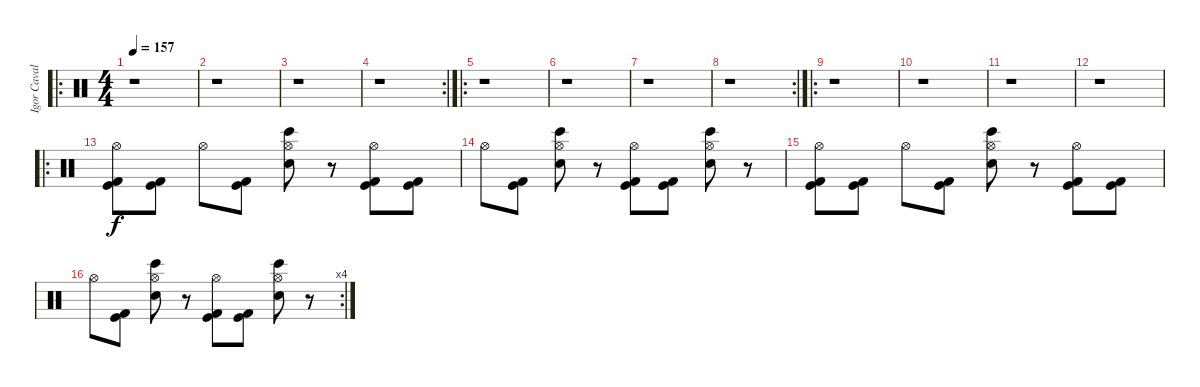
\track ("Igor Cavalera" "Igor Caval") {instrument percussion}
\staff {score}
\articulation defaults
\ro
\ts (4 4)
\tempo 157
\clef neutral
\ks c
r.1{dy f} |
r.1 |
r.1 |
\rc 2
r.1 |
\ro
r.1 |
r.1 |
r.1 |
\rc 2
r.1 |
\ro
r.1 |
r.1 |
r.1 |
r.1 |
\ro
("Hi-Hat (open)" "Kick (hit) 2" "Kick (hit)").8 ("Kick (hit) 2" "Kick (hit)").8 "Hi-Hat (open)".8 ("Kick (hit) 2" "Kick (hit)").8 ("Hi-Hat (open)" "Hand Clap (hit)" "Bongo High (hit)").8 r.8 ("Hi-Hat (open)" "Kick (hit) 2" "Kick (hit)").8 ("Kick (hit) 2" "Kick (hit)").8 |
"Hi-Hat (open)".8 ("Kick (hit) 2" "Kick (hit)").8 ("Hi-Hat (open)" "Hand Clap (hit)" "Bongo High (hit)").8 r.8 ("Hi-Hat (open)" "Kick (hit) 2" "Kick (hit)").8 ("Kick (hit) 2" "Kick (hit)").8 ("Hi-Hat (open)" "Hand Clap (hit)" "Bongo High (hit)").8 r.8 |
("Hi-Hat (open)" "Kick (hit) 2" "Kick (hit)").8 ("Kick (hit) 2" "Kick (hit)").8 "Hi-Hat (open)".8 ("Kick (hit) 2" "Kick (hit)").8 ("Hi-Hat (open)" "Hand Clap (hit)" "Bongo High (hit)").8 r.8 ("Hi-Hat (open)" "Kick (hit) 2" "Kick (hit)").8 ("Kick (hit) 2" "Kick (hit)").8 |
\rc 4 "Hi-Hat (open)".8
("Kick (hit) 2" "Kick (hit)").8 ("Hi-Hat (open)" "Hand Clap (hit)" "Bongo High (hit)").8 r.8 ("Hi-Hat (open)" "Kick (hit) 2" "Kick (hit)").8 ("Kick (hit) 2" "Kick (hit)").8 ("Hi-Hat (open)" "Hand Clap (hit)" "Bongo High (hit)").8 r.8
